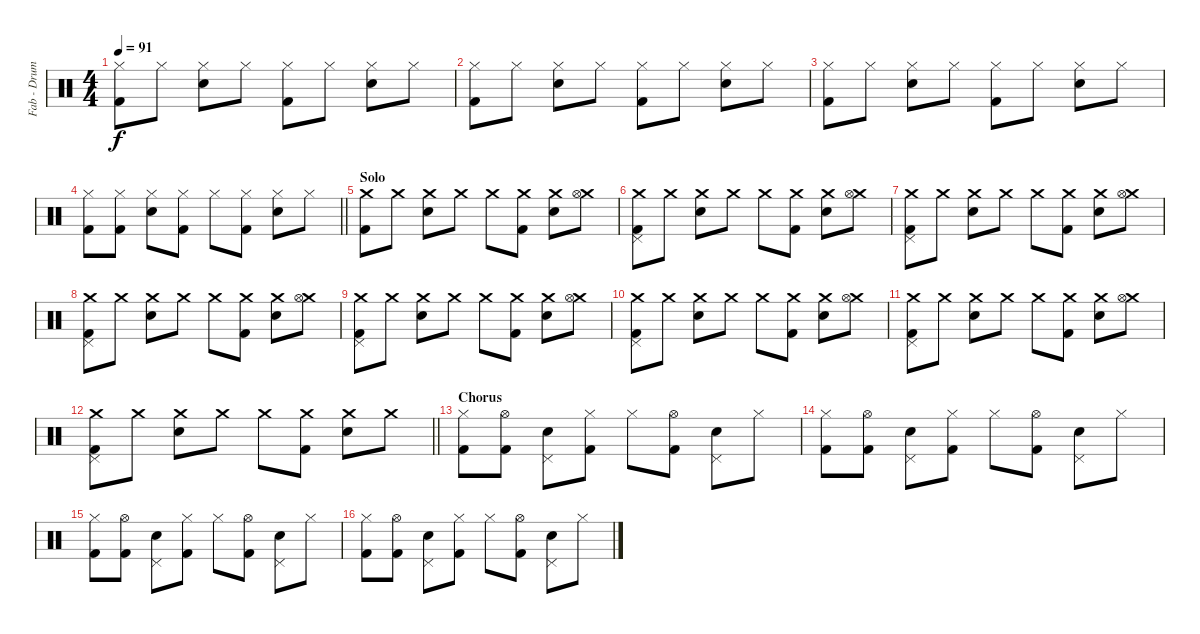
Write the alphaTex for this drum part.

\track ("Fab - Drums MIDI" "Fab - Drum") {instrument percussion}
\staff {score}
\articulation defaults
\ts (4 4)
\tempo 91
\clef neutral
\ks c
("Hi-Hat (closed)" "Kick (hit) 2").8{dy f} "Hi-Hat (closed)".8 ("Hi-Hat (closed)" "Snare (hit) 2").8 "Hi-Hat (closed)".8 ("Hi-Hat (closed)" "Kick (hit) 2").8 "Hi-Hat (closed)".8 ("Hi-Hat (closed)" "Snare (hit) 2").8 "Hi-Hat (closed)".8 |
("Hi-Hat (closed)" "Kick (hit) 2").8 "Hi-Hat (closed)".8 ("Hi-Hat (closed)" "Snare (hit) 2").8 "Hi-Hat (closed)".8 ("Hi-Hat (closed)" "Kick (hit) 2").8 "Hi-Hat (closed)".8 ("Hi-Hat (closed)" "Snare (hit) 2").8 "Hi-Hat (closed)".8 |
("Hi-Hat (closed)" "Kick (hit) 2").8 "Hi-Hat (closed)".8 ("Hi-Hat (closed)" "Snare (hit) 2").8 "Hi-Hat (closed)".8 ("Hi-Hat (closed)" "Kick (hit) 2").8 "Hi-Hat (closed)".8 ("Hi-Hat (closed)" "Snare (hit) 2").8 "Hi-Hat (closed)".8 |
\barLineRight lightlight
("Hi-Hat (closed)" "Kick (hit) 2").8 ("Hi-Hat (closed)" "Kick (hit) 2").8 ("Hi-Hat (closed)" "Snare (hit) 2").8 ("Hi-Hat (closed)" "Kick (hit) 2").8 "Hi-Hat (closed)".8 ("Hi-Hat (closed)" "Kick (hit) 2").8 ("Hi-Hat (closed)" "Snare (hit) 2").8 "Hi-Hat (closed)".8 |
\section ("" "Solo")
("Crash medium (hit)" "Kick (hit) 2").8 "Crash medium (hit)".8 ("Crash medium (hit)" "Snare (hit) 2").8 "Crash medium (hit)".8 "Crash medium (hit)".8 ("Crash medium (hit)" "Kick (hit) 2").8 ("Crash medium (hit)" "Snare (hit) 2").8 ("Crash medium (hit)" "Hi-Hat (open)").8 |
("Crash medium (hit)" "Kick (hit) 2" "Pedal Hi-Hat (hit)").8 "Crash medium (hit)".8 ("Crash medium (hit)" "Snare (hit) 2").8 "Crash medium (hit)".8 "Crash medium (hit)".8 ("Crash medium (hit)" "Kick (hit) 2").8 ("Crash medium (hit)" "Snare (hit) 2").8 ("Crash medium (hit)" "Hi-Hat (open)").8 |
("Crash medium (hit)" "Kick (hit) 2" "Pedal Hi-Hat (hit)").8 "Crash medium (hit)".8 ("Crash medium (hit)" "Snare (hit) 2").8 "Crash medium (hit)".8 "Crash medium (hit)".8 ("Crash medium (hit)" "Kick (hit) 2").8 ("Crash medium (hit)" "Snare (hit) 2").8 ("Crash medium (hit)" "Hi-Hat (open)").8 |
("Crash medium (hit)" "Kick (hit) 2" "Pedal Hi-Hat (hit)").8 "Crash medium (hit)".8 ("Crash medium (hit)" "Snare (hit) 2").8 "Crash medium (hit)".8 "Crash medium (hit)".8 ("Crash medium (hit)" "Kick (hit) 2").8 ("Crash medium (hit)" "Snare (hit) 2").8 ("Crash medium (hit)" "Hi-Hat (open)").8 |
("Crash medium (hit)" "Kick (hit) 2" "Pedal Hi-Hat (hit)").8 "Crash medium (hit)".8 ("Crash medium (hit)" "Snare (hit) 2").8 "Crash medium (hit)".8 "Crash medium (hit)".8 ("Crash medium (hit)" "Kick (hit) 2").8 ("Crash medium (hit)" "Snare (hit) 2").8 ("Crash medium (hit)" "Hi-Hat (open)").8 |
("Crash medium (hit)" "Kick (hit) 2" "Pedal Hi-Hat (hit)").8 "Crash medium (hit)".8 ("Crash medium (hit)" "Snare (hit) 2").8 "Crash medium (hit)".8 "Crash medium (hit)".8 ("Crash medium (hit)" "Kick (hit) 2").8 ("Crash medium (hit)" "Snare (hit) 2").8 ("Crash medium (hit)" "Hi-Hat (open)").8 |
("Crash medium (hit)" "Kick (hit) 2" "Pedal Hi-Hat (hit)").8 "Crash medium (hit)".8 ("Crash medium (hit)" "Snare (hit) 2").8 "Crash medium (hit)".8 "Crash medium (hit)".8 ("Crash medium (hit)" "Kick (hit) 2").8 ("Crash medium (hit)" "Snare (hit) 2").8 ("Crash medium (hit)" "Hi-Hat (open)").8 |
\barLineRight lightlight
("Crash medium (hit)" "Kick (hit) 2" "Pedal Hi-Hat (hit)").8 "Crash medium (hit)".8 ("Crash medium (hit)" "Snare (hit) 2").8 "Crash medium (hit)".8 "Crash medium (hit)".8 ("Crash medium (hit)" "Kick (hit) 2").8 ("Crash medium (hit)" "Snare (hit) 2").8 "Crash medium (hit)".8 |
\section ("" "Chorus")
("Hi-Hat (closed)" "Kick (hit) 2").8 ("Hi-Hat (open)" "Kick (hit) 2").8 ("Pedal Hi-Hat (hit)" "Snare (hit) 2").8 ("Hi-Hat (closed)" "Kick (hit) 2").8 "Hi-Hat (closed)".8 ("Hi-Hat (open)" "Kick (hit) 2").8 ("Pedal Hi-Hat (hit)" "Snare (hit) 2").8 "Hi-Hat (closed)".8 |
("Hi-Hat (closed)" "Kick (hit) 2").8 ("Hi-Hat (open)" "Kick (hit) 2").8 ("Pedal Hi-Hat (hit)" "Snare (hit) 2").8 ("Hi-Hat (closed)" "Kick (hit) 2").8 "Hi-Hat (closed)".8 ("Hi-Hat (open)" "Kick (hit) 2").8 ("Pedal Hi-Hat (hit)" "Snare (hit) 2").8 "Hi-Hat (closed)".8 |
("Hi-Hat (closed)" "Kick (hit) 2").8 ("Hi-Hat (open)" "Kick (hit) 2").8 ("Pedal Hi-Hat (hit)" "Snare (hit) 2").8 ("Hi-Hat (closed)" "Kick (hit) 2").8 "Hi-Hat (closed)".8 ("Hi-Hat (open)" "Kick (hit) 2").8 ("Pedal Hi-Hat (hit)" "Snare (hit) 2").8 "Hi-Hat (closed)".8 |
("Hi-Hat (closed)" "Kick (hit) 2").8 ("Hi-Hat (open)" "Kick (hit) 2").8 ("Pedal Hi-Hat (hit)" "Snare (hit) 2").8 ("Hi-Hat (closed)" "Kick (hit) 2").8 "Hi-Hat (closed)".8 ("Hi-Hat (open)" "Kick (hit) 2").8 ("Pedal Hi-Hat (hit)" "Snare (hit) 2").8 "Hi-Hat (closed)".8
